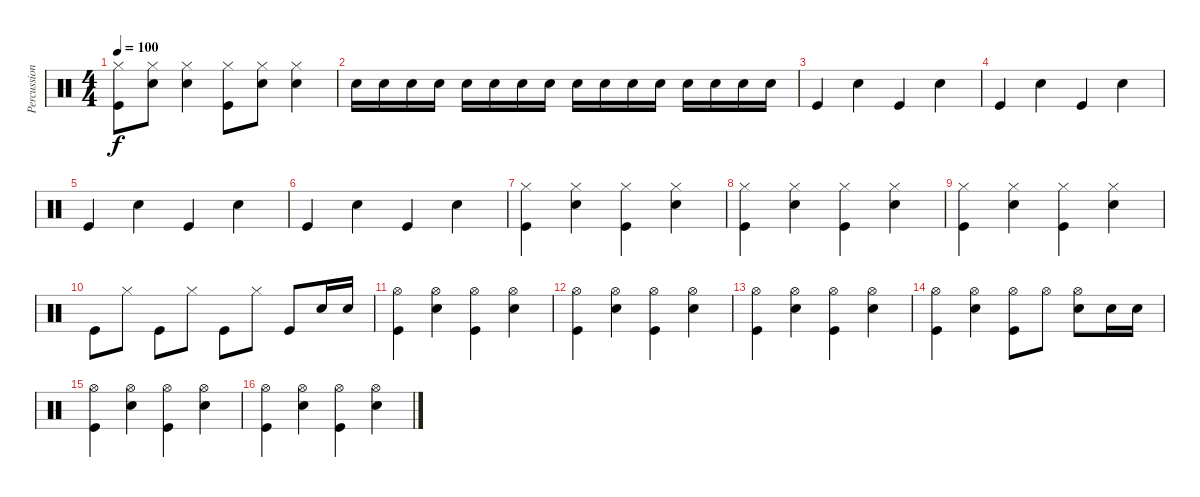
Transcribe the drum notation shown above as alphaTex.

\track ("Percussion" "Percussion") {instrument percussion}
\staff {score}
\articulation defaults
\ts (4 4)
\tempo 100
\clef neutral
\ks c
("Hi-Hat (closed)" "Kick (hit)").8{dy f} ("Hi-Hat (closed)" "Snare (hit) 2").8 ("Hi-Hat (closed)" "Snare (hit) 2").4 ("Hi-Hat (closed)" "Kick (hit)").8 ("Hi-Hat (closed)" "Snare (hit) 2").8 ("Hi-Hat (closed)" "Snare (hit) 2").4 |
"Snare (hit) 2".16 "Snare (hit) 2".16 "Snare (hit) 2".16 "Snare (hit) 2".16 "Snare (hit) 2".16 "Snare (hit) 2".16 "Snare (hit) 2".16 "Snare (hit) 2".16 "Snare (hit) 2".16 "Snare (hit) 2".16 "Snare (hit) 2".16 "Snare (hit) 2".16 "Snare (hit) 2".16 "Snare (hit) 2".16 "Snare (hit) 2".16 "Snare (hit) 2".16 |
"Kick (hit)".4 "Snare (hit) 2".4 "Kick (hit)".4 "Snare (hit) 2".4 |
"Kick (hit)".4 "Snare (hit) 2".4 "Kick (hit)".4 "Snare (hit) 2".4 |
"Kick (hit)".4 "Snare (hit) 2".4 "Kick (hit)".4 "Snare (hit) 2".4 |
"Kick (hit)".4 "Snare (hit) 2".4 "Kick (hit)".4 "Snare (hit) 2".4 |
("Hi-Hat (closed)" "Kick (hit)").4 ("Hi-Hat (closed)" "Snare (hit) 2").4 ("Hi-Hat (closed)" "Kick (hit)").4 ("Hi-Hat (closed)" "Snare (hit) 2").4 |
("Hi-Hat (closed)" "Kick (hit)").4 ("Hi-Hat (closed)" "Snare (hit) 2").4 ("Hi-Hat (closed)" "Kick (hit)").4 ("Hi-Hat (closed)" "Snare (hit) 2").4 |
("Hi-Hat (closed)" "Kick (hit)").4 ("Hi-Hat (closed)" "Snare (hit) 2").4 ("Hi-Hat (closed)" "Kick (hit)").4 ("Hi-Hat (closed)" "Snare (hit) 2").4 |
"Kick (hit)".8 "Hi-Hat (closed)".8 "Kick (hit)".8 "Hi-Hat (closed)".8 "Kick (hit)".8 "Hi-Hat (closed)".8 "Kick (hit)".8 "Snare (hit) 2".16 "Snare (hit) 2".16 |
("Hi-Hat (open)" "Kick (hit)").4 ("Hi-Hat (open)" "Snare (hit) 2").4 ("Hi-Hat (open)" "Kick (hit)").4 ("Hi-Hat (open)" "Snare (hit) 2").4 |
("Hi-Hat (open)" "Kick (hit)").4 ("Hi-Hat (open)" "Snare (hit) 2").4 ("Hi-Hat (open)" "Kick (hit)").4 ("Hi-Hat (open)" "Snare (hit) 2").4 |
("Hi-Hat (open)" "Kick (hit)").4 ("Hi-Hat (open)" "Snare (hit) 2").4 ("Hi-Hat (open)" "Kick (hit)").4 ("Hi-Hat (open)" "Snare (hit) 2").4 |
("Hi-Hat (open)" "Kick (hit)").4 ("Hi-Hat (open)" "Snare (hit) 2").4 ("Hi-Hat (open)" "Kick (hit)").8 "Hi-Hat (open)".8 ("Hi-Hat (open)" "Snare (hit) 2").8 "Snare (hit) 2".16 "Snare (hit) 2".16 |
("Hi-Hat (open)" "Kick (hit)").4 ("Hi-Hat (open)" "Snare (hit) 2").4 ("Hi-Hat (open)" "Kick (hit)").4 ("Hi-Hat (open)" "Snare (hit) 2").4 |
("Hi-Hat (open)" "Kick (hit)").4 ("Hi-Hat (open)" "Snare (hit) 2").4 ("Hi-Hat (open)" "Kick (hit)").4 ("Hi-Hat (open)" "Snare (hit) 2").4
